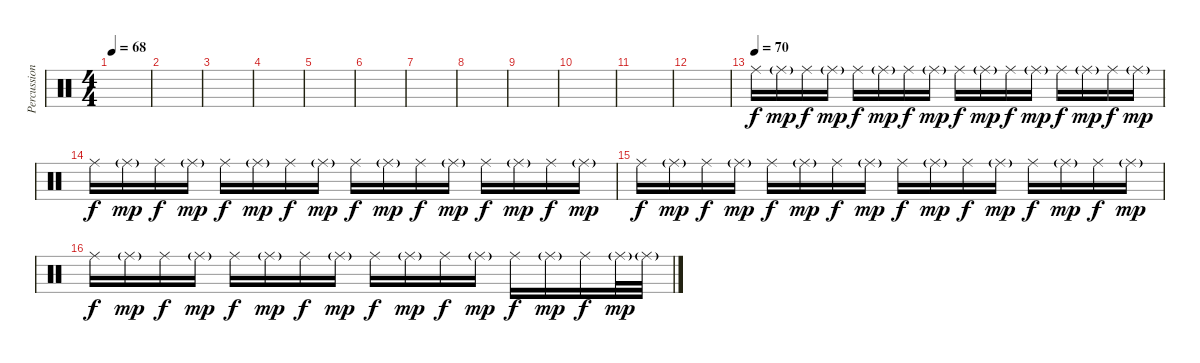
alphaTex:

\track ("Percussion" "Percussion") {instrument percussion}
\staff {score}
\articulation defaults
\ts (4 4)
\tempo 68
\clef neutral
\ks c
|
|
|
|
|
|
|
|
|
|
|
|
\tempo (70)
"Ride (middle)".16 "Ride (middle)"{g}.16{dy mp} "Ride (middle)".16{dy f} "Ride (middle)"{g}.16{dy mp} "Ride (middle)".16{dy f} "Ride (middle)"{g}.16{dy mp} "Ride (middle)".16{dy f} "Ride (middle)"{g}.16{dy mp} "Ride (middle)".16{dy f} "Ride (middle)"{g}.16{dy mp} "Ride (middle)".16{dy f} "Ride (middle)"{g}.16{dy mp} "Ride (middle)".16{dy f} "Ride (middle)"{g}.16{dy mp} "Ride (middle)".16{dy f} "Ride (middle)"{g}.16{dy mp} |
"Ride (middle)".16{dy f} "Ride (middle)"{g}.16{dy mp} "Ride (middle)".16{dy f} "Ride (middle)"{g}.16{dy mp} "Ride (middle)".16{dy f} "Ride (middle)"{g}.16{dy mp} "Ride (middle)".16{dy f} "Ride (middle)"{g}.16{dy mp} "Ride (middle)".16{dy f} "Ride (middle)"{g}.16{dy mp} "Ride (middle)".16{dy f} "Ride (middle)"{g}.16{dy mp} "Ride (middle)".16{dy f} "Ride (middle)"{g}.16{dy mp} "Ride (middle)".16{dy f} "Ride (middle)"{g}.16{dy mp} |
"Ride (middle)".16{dy f} "Ride (middle)"{g}.16{dy mp} "Ride (middle)".16{dy f} "Ride (middle)"{g}.16{dy mp} "Ride (middle)".16{dy f} "Ride (middle)"{g}.16{dy mp} "Ride (middle)".16{dy f} "Ride (middle)"{g}.16{dy mp} "Ride (middle)".16{dy f} "Ride (middle)"{g}.16{dy mp} "Ride (middle)".16{dy f} "Ride (middle)"{g}.16{dy mp} "Ride (middle)".16{dy f} "Ride (middle)"{g}.16{dy mp} "Ride (middle)".16{dy f} "Ride (middle)"{g}.16{dy mp} |
"Ride (middle)".16{dy f} "Ride (middle)"{g}.16{dy mp} "Ride (middle)".16{dy f} "Ride (middle)"{g}.16{dy mp} "Ride (middle)".16{dy f} "Ride (middle)"{g}.16{dy mp} "Ride (middle)".16{dy f} "Ride (middle)"{g}.16{dy mp} "Ride (middle)".16{dy f} "Ride (middle)"{g}.16{dy mp} "Ride (middle)".16{dy f} "Ride (middle)"{g}.16{dy mp} "Ride (middle)".16{dy f} "Ride (middle)"{g}.16{dy mp} "Ride (middle)".16{dy f} "Ride (middle)"{g}.32{dy mp} "Ride (middle)"{g}.32
